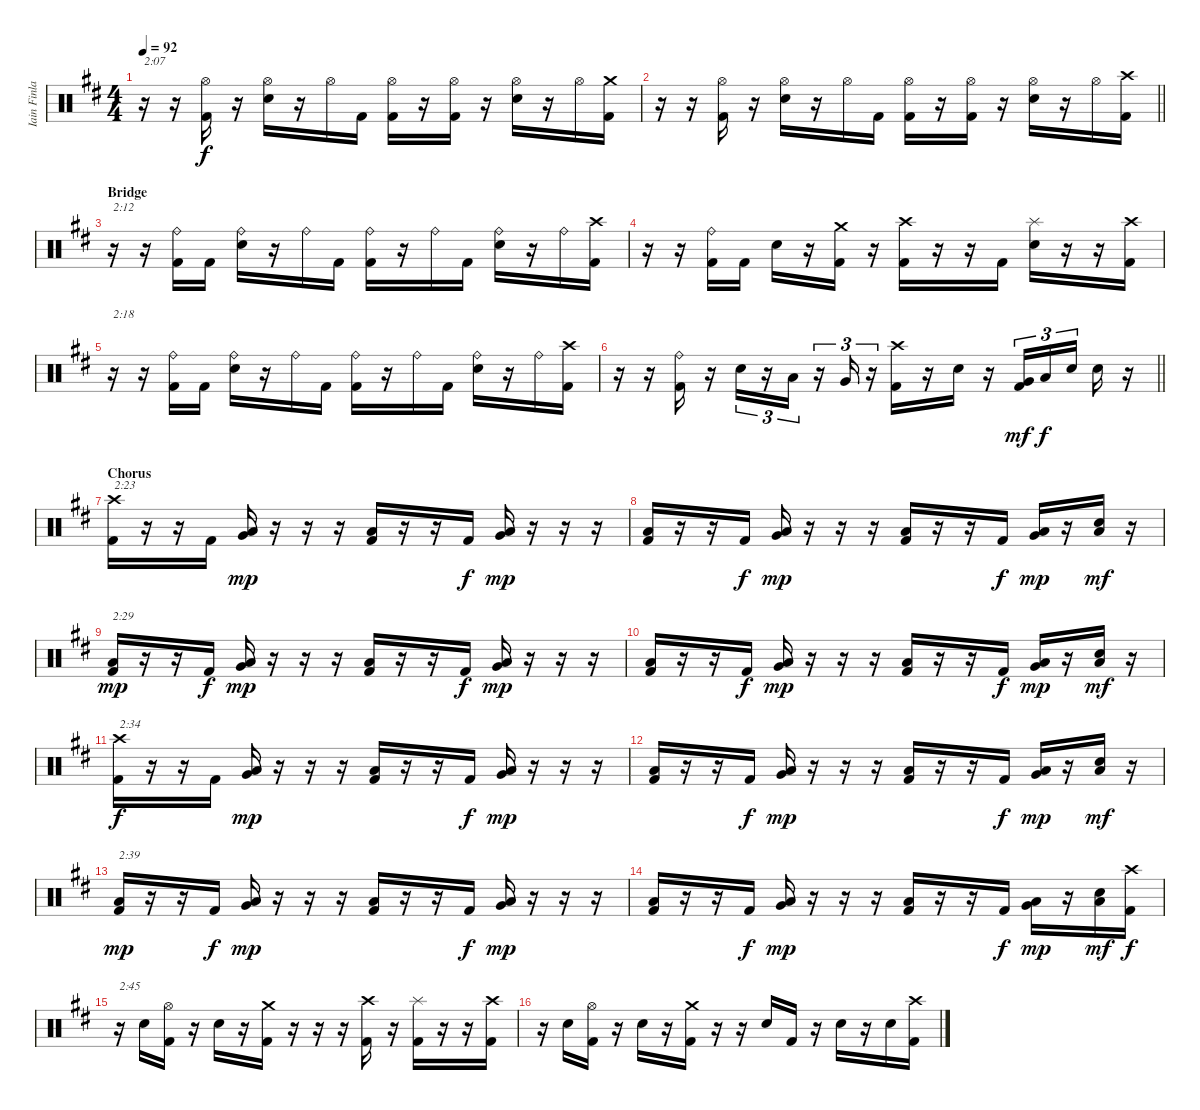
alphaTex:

\track ("Iain Finlay" "Iain Finla") {instrument percussion}
\staff {score}
\articulation defaults
\ts (4 4)
\tempo 92
\clef neutral
\ks bminor
r.16{txt "2:07" dy f} r.16 ("Hi-Hat (open)" "Kick (hit) 2").16 r.16 ("Hi-Hat (open)" "Electric Snare (hit)").16 r.16 "Hi-Hat (open)".16 "Kick (hit) 2".16 ("Hi-Hat (open)" "Kick (hit) 2").16 r.16 ("Hi-Hat (open)" "Kick (hit) 2").16 r.16 ("Hi-Hat (open)" "Electric Snare (hit)").16 r.16 "Hi-Hat (open)".16 ("Crash medium (hit)" "Kick (hit) 2").16 |
\barLineRight lightlight
r.16 r.16 ("Hi-Hat (open)" "Kick (hit) 2").16 r.16 ("Hi-Hat (open)" "Electric Snare (hit)").16 r.16 "Hi-Hat (open)".16 "Kick (hit) 2".16 ("Hi-Hat (open)" "Kick (hit) 2").16 r.16 ("Hi-Hat (open)" "Kick (hit) 2").16 r.16 ("Hi-Hat (open)" "Electric Snare (hit)").16 r.16 "Hi-Hat (open)".16 ("Crash high (hit)" "Kick (hit) 2").16 |
\section ("" "Bridge")
r.16{txt "2:12"} r.16 ("Ride (bell)" "Kick (hit) 2").16 "Kick (hit) 2".16 ("Ride (bell)" "Electric Snare (hit)").16 r.16 "Ride (bell)".16 "Kick (hit) 2".16 ("Ride (bell)" "Kick (hit) 2").16 r.16 "Ride (bell)".16 "Kick (hit) 2".16 ("Ride (bell)" "Electric Snare (hit)").16 r.16 "Ride (bell)".16 ("Crash high (hit)" "Kick (hit) 2").16 |
r.16 r.16 ("Ride (bell)" "Kick (hit) 2").16 "Kick (hit) 2".16 "Electric Snare (hit)".16 r.16 ("Crash medium (hit)" "Kick (hit) 2").16 r.16 ("Crash high (hit)" "Kick (hit) 2").16 r.16 r.16 "Kick (hit) 2".16 ("Splash (hit)" "Electric Snare (hit)").16 r.16 r.16 ("Crash high (hit)" "Kick (hit) 2").16 |
r.16{txt "2:18"} r.16 ("Ride (bell)" "Kick (hit) 2").16 "Kick (hit) 2".16 ("Ride (bell)" "Electric Snare (hit)").16 r.16 "Ride (bell)".16 "Kick (hit) 2".16 ("Ride (bell)" "Kick (hit) 2").16 r.16 "Ride (bell)".16 "Kick (hit) 2".16 ("Ride (bell)" "Electric Snare (hit)").16 r.16 "Ride (bell)".16 ("Crash high (hit)" "Kick (hit) 2").16 |
\barLineRight lightlight
r.16 r.16 ("Ride (bell)" "Kick (hit) 2").16 r.16 "Electric Snare (hit)".16{tu (3 2)} r.16{tu (3 2)} "Low Tom (hit)".16{tu (3 2)} r.16{tu (3 2)} "Very Low Tom (hit)".16{tu (3 2)} r.16{tu (3 2)} ("Crash high (hit)" "Kick (hit) 2").16 r.16 "Electric Snare (hit)".16 r.16 ("Very Low Tom (hit)" "Kick (hit) 2").16{tu (3 2) dy mf} "Low Floor Tom (hit)".16{tu (3 2) dy f} "Electric Snare (hit)".16{tu (3 2) beam splitsecondary} "Electric Snare (hit)".16 r.16 |
\section ("" "Chorus")
("Crash high (hit)" "Kick (hit) 2").16{txt "2:23"} r.16 r.16 "Kick (hit) 2".16 ("Low Floor Tom (hit)" "Very Low Tom (hit)").16{dy mp} r.16 r.16 r.16 ("Low Floor Tom (hit)" "Kick (hit) 2").16 r.16 r.16 "Kick (hit) 2".16{dy f} ("Low Floor Tom (hit)" "Very Low Tom (hit)").16{dy mp} r.16 r.16 r.16 |
("Low Floor Tom (hit)" "Kick (hit) 2").16 r.16 r.16 "Kick (hit) 2".16{dy f} ("Low Floor Tom (hit)" "Very Low Tom (hit)").16{dy mp} r.16 r.16 r.16 ("Low Floor Tom (hit)" "Kick (hit) 2").16 r.16 r.16 "Kick (hit) 2".16{dy f} ("Low Floor Tom (hit)" "Very Low Tom (hit)").16{dy mp} r.16 ("Low Floor Tom (hit)" "Electric Snare (hit)").16{dy mf} r.16 |
("Low Floor Tom (hit)" "Kick (hit) 2").16{txt "2:29" dy mp} r.16 r.16 "Kick (hit) 2".16{dy f} ("Low Floor Tom (hit)" "Very Low Tom (hit)").16{dy mp} r.16 r.16 r.16 ("Low Floor Tom (hit)" "Kick (hit) 2").16 r.16 r.16 "Kick (hit) 2".16{dy f} ("Low Floor Tom (hit)" "Very Low Tom (hit)").16{dy mp} r.16 r.16 r.16 |
("Low Floor Tom (hit)" "Kick (hit) 2").16 r.16 r.16 "Kick (hit) 2".16{dy f} ("Low Floor Tom (hit)" "Very Low Tom (hit)").16{dy mp} r.16 r.16 r.16 ("Low Floor Tom (hit)" "Kick (hit) 2").16 r.16 r.16 "Kick (hit) 2".16{dy f} ("Low Floor Tom (hit)" "Very Low Tom (hit)").16{dy mp} r.16 ("Low Floor Tom (hit)" "Electric Snare (hit)").16{dy mf} r.16 |
("Crash high (hit)" "Kick (hit) 2").16{txt "2:34" dy f} r.16 r.16 "Kick (hit) 2".16 ("Low Floor Tom (hit)" "Very Low Tom (hit)").16{dy mp} r.16 r.16 r.16 ("Low Floor Tom (hit)" "Kick (hit) 2").16 r.16 r.16 "Kick (hit) 2".16{dy f} ("Low Floor Tom (hit)" "Very Low Tom (hit)").16{dy mp} r.16 r.16 r.16 |
("Low Floor Tom (hit)" "Kick (hit) 2").16 r.16 r.16 "Kick (hit) 2".16{dy f} ("Low Floor Tom (hit)" "Very Low Tom (hit)").16{dy mp} r.16 r.16 r.16 ("Low Floor Tom (hit)" "Kick (hit) 2").16 r.16 r.16 "Kick (hit) 2".16{dy f} ("Low Floor Tom (hit)" "Very Low Tom (hit)").16{dy mp} r.16 ("Low Floor Tom (hit)" "Electric Snare (hit)").16{dy mf} r.16 |
("Low Floor Tom (hit)" "Kick (hit) 2").16{txt "2:39" dy mp} r.16 r.16 "Kick (hit) 2".16{dy f} ("Low Floor Tom (hit)" "Very Low Tom (hit)").16{dy mp} r.16 r.16 r.16 ("Low Floor Tom (hit)" "Kick (hit) 2").16 r.16 r.16 "Kick (hit) 2".16{dy f} ("Low Floor Tom (hit)" "Very Low Tom (hit)").16{dy mp} r.16 r.16 r.16 |
("Low Floor Tom (hit)" "Kick (hit) 2").16 r.16 r.16 "Kick (hit) 2".16{dy f} ("Low Floor Tom (hit)" "Very Low Tom (hit)").16{dy mp} r.16 r.16 r.16 ("Low Floor Tom (hit)" "Kick (hit) 2").16 r.16 r.16 "Kick (hit) 2".16{dy f} ("Low Floor Tom (hit)" "Very Low Tom (hit)").16{dy mp} r.16 ("Low Floor Tom (hit)" "Electric Snare (hit)").16{dy mf} ("Crash high (hit)" "Kick (hit) 2").16{dy f} |
r.16{txt "2:45"} "Electric Snare (hit)".16 ("Hi-Hat (open)" "Kick (hit) 2").16 r.16 "Electric Snare (hit)".16 r.16 ("Crash medium (hit)" "Kick (hit) 2").16 r.16 r.16{volume 0} r.16 ("Crash high (hit)" "Kick (hit) 2").16{volume 13} r.16 ("Splash (hit)" "Kick (hit) 2").16 r.16 r.16 ("Crash high (hit)" "Kick (hit) 2").16 |
r.16 "Electric Snare (hit)".16 ("Hi-Hat (open)" "Kick (hit) 2").16 r.16 "Electric Snare (hit)".16 r.16 ("Crash medium (hit)" "Kick (hit) 2").16 r.16 r.16 "Electric Snare (hit)".16 "Kick (hit) 2".16 r.16 "Electric Snare (hit)".16 r.16 "Electric Snare (hit)".16 ("Crash high (hit)" "Kick (hit) 2").16
